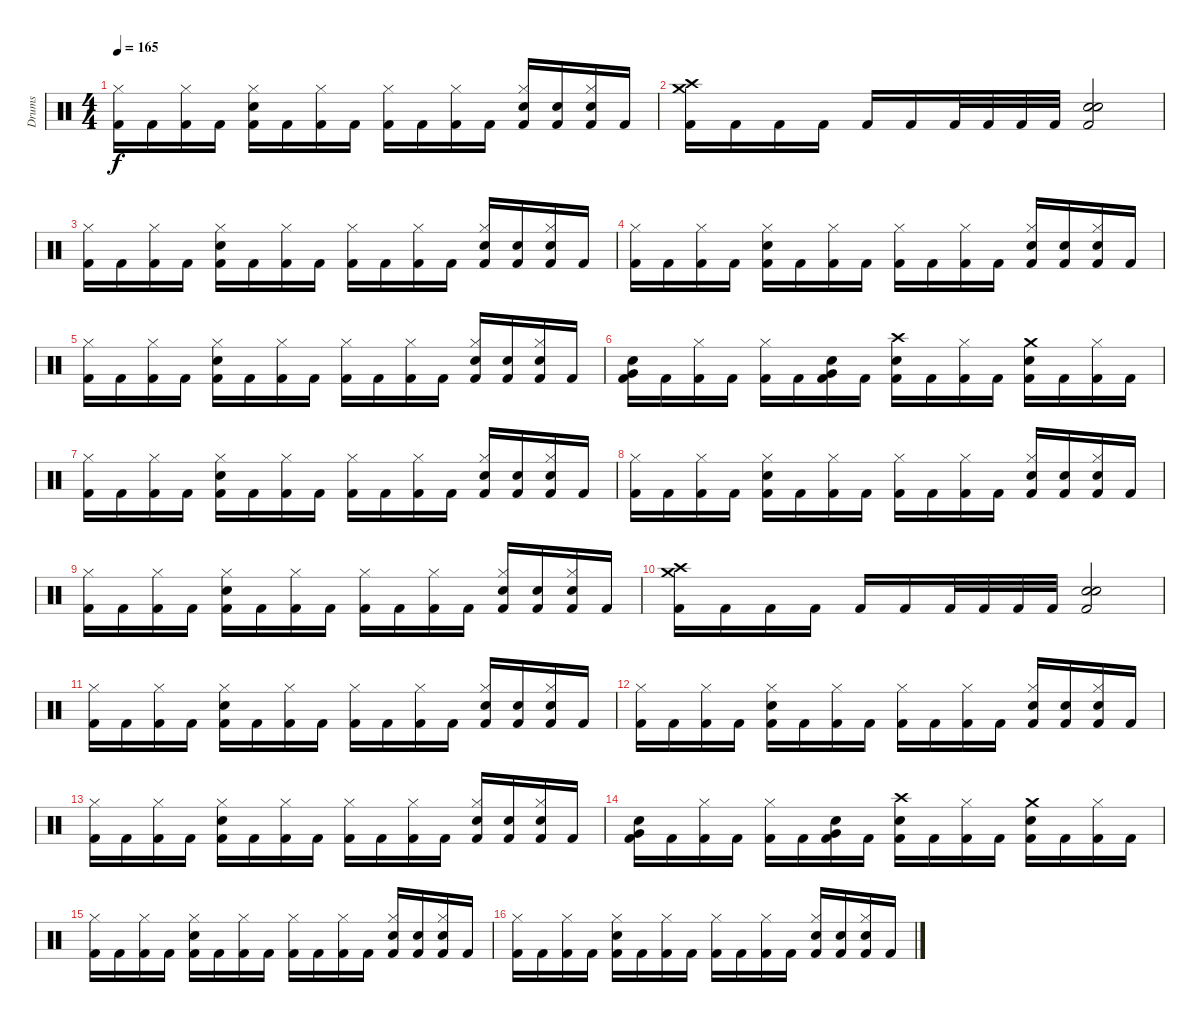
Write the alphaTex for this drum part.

\track ("Drums" "Drums") {instrument percussion}
\staff {score}
\articulation defaults
\ts (4 4)
\tempo 165
\clef neutral
\ks c
("Kick (hit) 2" "Hi-Hat (closed)").16{dy f} "Kick (hit) 2".16 ("Kick (hit) 2" "Hi-Hat (closed)").16 "Kick (hit) 2".16 ("Kick (hit) 2" "Hi-Hat (closed)" "Snare (hit) 2").16 "Kick (hit) 2".16 ("Kick (hit) 2" "Hi-Hat (closed)").16 "Kick (hit) 2".16 ("Kick (hit) 2" "Hi-Hat (closed)").16 "Kick (hit) 2".16 ("Kick (hit) 2" "Hi-Hat (closed)").16 "Kick (hit) 2".16 ("Kick (hit) 2" "Hi-Hat (closed)" "Snare (hit) 2").16 ("Kick (hit) 2" "Snare (hit) 2").16 ("Kick (hit) 2" "Hi-Hat (closed)" "Snare (hit) 2").16 "Kick (hit) 2".16 |
("Kick (hit) 2" "Crash high (hit)" "Crash medium (hit)").16 "Kick (hit) 2".16 "Kick (hit) 2".16 "Kick (hit) 2".16 "Kick (hit) 2".16 "Kick (hit) 2".16 "Kick (hit) 2".32 "Kick (hit) 2".32 "Kick (hit) 2".32 "Kick (hit) 2".32 ("Kick (hit) 2" "Snare (hit) 2" "Snare (hit) 2").2 |
("Kick (hit) 2" "Hi-Hat (closed)").16 "Kick (hit) 2".16 ("Kick (hit) 2" "Hi-Hat (closed)").16 "Kick (hit) 2".16 ("Kick (hit) 2" "Hi-Hat (closed)" "Snare (hit) 2").16 "Kick (hit) 2".16 ("Kick (hit) 2" "Hi-Hat (closed)").16 "Kick (hit) 2".16 ("Kick (hit) 2" "Hi-Hat (closed)").16 "Kick (hit) 2".16 ("Kick (hit) 2" "Hi-Hat (closed)").16 "Kick (hit) 2".16 ("Kick (hit) 2" "Hi-Hat (closed)" "Snare (hit) 2").16 ("Kick (hit) 2" "Snare (hit) 2").16 ("Kick (hit) 2" "Hi-Hat (closed)" "Snare (hit) 2").16 "Kick (hit) 2".16 |
("Kick (hit) 2" "Hi-Hat (closed)").16 "Kick (hit) 2".16 ("Kick (hit) 2" "Hi-Hat (closed)").16 "Kick (hit) 2".16 ("Kick (hit) 2" "Hi-Hat (closed)" "Snare (hit) 2").16 "Kick (hit) 2".16 ("Kick (hit) 2" "Hi-Hat (closed)").16 "Kick (hit) 2".16 ("Kick (hit) 2" "Hi-Hat (closed)").16 "Kick (hit) 2".16 ("Kick (hit) 2" "Hi-Hat (closed)").16 "Kick (hit) 2".16 ("Kick (hit) 2" "Hi-Hat (closed)" "Snare (hit) 2").16 ("Kick (hit) 2" "Snare (hit) 2").16 ("Kick (hit) 2" "Hi-Hat (closed)" "Snare (hit) 2").16 "Kick (hit) 2".16 |
("Kick (hit) 2" "Hi-Hat (closed)").16 "Kick (hit) 2".16 ("Kick (hit) 2" "Hi-Hat (closed)").16 "Kick (hit) 2".16 ("Kick (hit) 2" "Hi-Hat (closed)" "Snare (hit) 2").16 "Kick (hit) 2".16 ("Kick (hit) 2" "Hi-Hat (closed)").16 "Kick (hit) 2".16 ("Kick (hit) 2" "Hi-Hat (closed)").16 "Kick (hit) 2".16 ("Kick (hit) 2" "Hi-Hat (closed)").16 "Kick (hit) 2".16 ("Kick (hit) 2" "Hi-Hat (closed)" "Snare (hit) 2").16 ("Kick (hit) 2" "Snare (hit) 2").16 ("Kick (hit) 2" "Hi-Hat (closed)" "Snare (hit) 2").16 "Kick (hit) 2".16 |
("Kick (hit) 2" "Snare (hit) 2" "Very Low Tom (hit)").16 "Kick (hit) 2".16 ("Kick (hit) 2" "Hi-Hat (closed)").16 "Kick (hit) 2".16 ("Kick (hit) 2" "Hi-Hat (closed)").16 "Kick (hit) 2".16 ("Kick (hit) 2" "Snare (hit) 2" "Very Low Tom (hit)").16 "Kick (hit) 2".16 ("Kick (hit) 2" "Snare (hit) 2" "Crash high (hit)").16 "Kick (hit) 2".16 ("Kick (hit) 2" "Hi-Hat (closed)").16 "Kick (hit) 2".16 ("Kick (hit) 2" "Snare (hit) 2" "Crash medium (hit)").16 "Kick (hit) 2".16 ("Kick (hit) 2" "Hi-Hat (closed)").16 "Kick (hit) 2".16 |
("Kick (hit) 2" "Hi-Hat (closed)").16 "Kick (hit) 2".16 ("Kick (hit) 2" "Hi-Hat (closed)").16 "Kick (hit) 2".16 ("Kick (hit) 2" "Hi-Hat (closed)" "Snare (hit) 2").16 "Kick (hit) 2".16 ("Kick (hit) 2" "Hi-Hat (closed)").16 "Kick (hit) 2".16 ("Kick (hit) 2" "Hi-Hat (closed)").16 "Kick (hit) 2".16 ("Kick (hit) 2" "Hi-Hat (closed)").16 "Kick (hit) 2".16 ("Kick (hit) 2" "Hi-Hat (closed)" "Snare (hit) 2").16 ("Kick (hit) 2" "Snare (hit) 2").16 ("Kick (hit) 2" "Hi-Hat (closed)" "Snare (hit) 2").16 "Kick (hit) 2".16 |
("Kick (hit) 2" "Hi-Hat (closed)").16 "Kick (hit) 2".16 ("Kick (hit) 2" "Hi-Hat (closed)").16 "Kick (hit) 2".16 ("Kick (hit) 2" "Hi-Hat (closed)" "Snare (hit) 2").16 "Kick (hit) 2".16 ("Kick (hit) 2" "Hi-Hat (closed)").16 "Kick (hit) 2".16 ("Kick (hit) 2" "Hi-Hat (closed)").16 "Kick (hit) 2".16 ("Kick (hit) 2" "Hi-Hat (closed)").16 "Kick (hit) 2".16 ("Kick (hit) 2" "Hi-Hat (closed)" "Snare (hit) 2").16 ("Kick (hit) 2" "Snare (hit) 2").16 ("Kick (hit) 2" "Hi-Hat (closed)" "Snare (hit) 2").16 "Kick (hit) 2".16 |
("Kick (hit) 2" "Hi-Hat (closed)").16 "Kick (hit) 2".16 ("Kick (hit) 2" "Hi-Hat (closed)").16 "Kick (hit) 2".16 ("Kick (hit) 2" "Hi-Hat (closed)" "Snare (hit) 2").16 "Kick (hit) 2".16 ("Kick (hit) 2" "Hi-Hat (closed)").16 "Kick (hit) 2".16 ("Kick (hit) 2" "Hi-Hat (closed)").16 "Kick (hit) 2".16 ("Kick (hit) 2" "Hi-Hat (closed)").16 "Kick (hit) 2".16 ("Kick (hit) 2" "Hi-Hat (closed)" "Snare (hit) 2").16 ("Kick (hit) 2" "Snare (hit) 2").16 ("Kick (hit) 2" "Hi-Hat (closed)" "Snare (hit) 2").16 "Kick (hit) 2".16 |
("Kick (hit) 2" "Crash high (hit)" "Crash medium (hit)").16 "Kick (hit) 2".16 "Kick (hit) 2".16 "Kick (hit) 2".16 "Kick (hit) 2".16 "Kick (hit) 2".16 "Kick (hit) 2".32 "Kick (hit) 2".32 "Kick (hit) 2".32 "Kick (hit) 2".32 ("Kick (hit) 2" "Snare (hit) 2" "Snare (hit) 2").2 |
("Kick (hit) 2" "Hi-Hat (closed)").16 "Kick (hit) 2".16 ("Kick (hit) 2" "Hi-Hat (closed)").16 "Kick (hit) 2".16 ("Kick (hit) 2" "Hi-Hat (closed)" "Snare (hit) 2").16 "Kick (hit) 2".16 ("Kick (hit) 2" "Hi-Hat (closed)").16 "Kick (hit) 2".16 ("Kick (hit) 2" "Hi-Hat (closed)").16 "Kick (hit) 2".16 ("Kick (hit) 2" "Hi-Hat (closed)").16 "Kick (hit) 2".16 ("Kick (hit) 2" "Hi-Hat (closed)" "Snare (hit) 2").16 ("Kick (hit) 2" "Snare (hit) 2").16 ("Kick (hit) 2" "Hi-Hat (closed)" "Snare (hit) 2").16 "Kick (hit) 2".16 |
("Kick (hit) 2" "Hi-Hat (closed)").16 "Kick (hit) 2".16 ("Kick (hit) 2" "Hi-Hat (closed)").16 "Kick (hit) 2".16 ("Kick (hit) 2" "Hi-Hat (closed)" "Snare (hit) 2").16 "Kick (hit) 2".16 ("Kick (hit) 2" "Hi-Hat (closed)").16 "Kick (hit) 2".16 ("Kick (hit) 2" "Hi-Hat (closed)").16 "Kick (hit) 2".16 ("Kick (hit) 2" "Hi-Hat (closed)").16 "Kick (hit) 2".16 ("Kick (hit) 2" "Hi-Hat (closed)" "Snare (hit) 2").16 ("Kick (hit) 2" "Snare (hit) 2").16 ("Kick (hit) 2" "Hi-Hat (closed)" "Snare (hit) 2").16 "Kick (hit) 2".16 |
("Kick (hit) 2" "Hi-Hat (closed)").16 "Kick (hit) 2".16 ("Kick (hit) 2" "Hi-Hat (closed)").16 "Kick (hit) 2".16 ("Kick (hit) 2" "Hi-Hat (closed)" "Snare (hit) 2").16 "Kick (hit) 2".16 ("Kick (hit) 2" "Hi-Hat (closed)").16 "Kick (hit) 2".16 ("Kick (hit) 2" "Hi-Hat (closed)").16 "Kick (hit) 2".16 ("Kick (hit) 2" "Hi-Hat (closed)").16 "Kick (hit) 2".16 ("Kick (hit) 2" "Hi-Hat (closed)" "Snare (hit) 2").16 ("Kick (hit) 2" "Snare (hit) 2").16 ("Kick (hit) 2" "Hi-Hat (closed)" "Snare (hit) 2").16 "Kick (hit) 2".16 |
("Kick (hit) 2" "Snare (hit) 2" "Very Low Tom (hit)").16 "Kick (hit) 2".16 ("Kick (hit) 2" "Hi-Hat (closed)").16 "Kick (hit) 2".16 ("Kick (hit) 2" "Hi-Hat (closed)").16 "Kick (hit) 2".16 ("Kick (hit) 2" "Snare (hit) 2" "Very Low Tom (hit)").16 "Kick (hit) 2".16 ("Kick (hit) 2" "Snare (hit) 2" "Crash high (hit)").16 "Kick (hit) 2".16 ("Kick (hit) 2" "Hi-Hat (closed)").16 "Kick (hit) 2".16 ("Kick (hit) 2" "Snare (hit) 2" "Crash medium (hit)").16 "Kick (hit) 2".16 ("Kick (hit) 2" "Hi-Hat (closed)").16 "Kick (hit) 2".16 |
("Kick (hit) 2" "Hi-Hat (closed)").16 "Kick (hit) 2".16 ("Kick (hit) 2" "Hi-Hat (closed)").16 "Kick (hit) 2".16 ("Kick (hit) 2" "Hi-Hat (closed)" "Snare (hit) 2").16 "Kick (hit) 2".16 ("Kick (hit) 2" "Hi-Hat (closed)").16 "Kick (hit) 2".16 ("Kick (hit) 2" "Hi-Hat (closed)").16 "Kick (hit) 2".16 ("Kick (hit) 2" "Hi-Hat (closed)").16 "Kick (hit) 2".16 ("Kick (hit) 2" "Hi-Hat (closed)" "Snare (hit) 2").16 ("Kick (hit) 2" "Snare (hit) 2").16 ("Kick (hit) 2" "Hi-Hat (closed)" "Snare (hit) 2").16 "Kick (hit) 2".16 |
("Kick (hit) 2" "Hi-Hat (closed)").16 "Kick (hit) 2".16 ("Kick (hit) 2" "Hi-Hat (closed)").16 "Kick (hit) 2".16 ("Kick (hit) 2" "Hi-Hat (closed)" "Snare (hit) 2").16 "Kick (hit) 2".16 ("Kick (hit) 2" "Hi-Hat (closed)").16 "Kick (hit) 2".16 ("Kick (hit) 2" "Hi-Hat (closed)").16 "Kick (hit) 2".16 ("Kick (hit) 2" "Hi-Hat (closed)").16 "Kick (hit) 2".16 ("Kick (hit) 2" "Hi-Hat (closed)" "Snare (hit) 2").16 ("Kick (hit) 2" "Snare (hit) 2").16 ("Kick (hit) 2" "Hi-Hat (closed)" "Snare (hit) 2").16 "Kick (hit) 2".16
